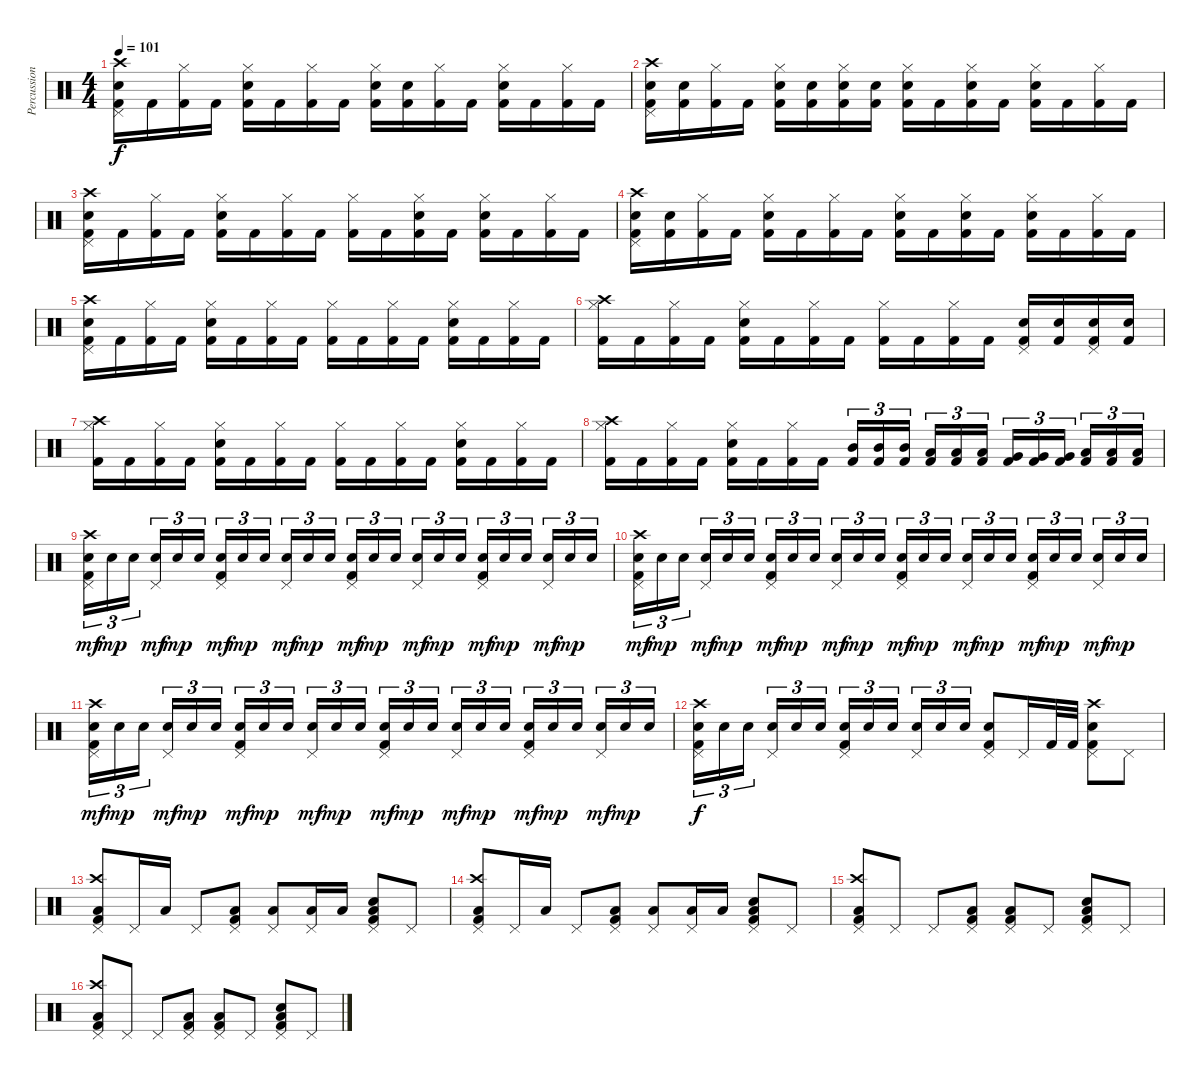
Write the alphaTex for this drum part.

\track ("Percussion" "Percussion") {instrument percussion}
\staff {score}
\articulation defaults
\ts (4 4)
\tempo 101
\clef neutral
\ks c
("Kick (hit) 2" "Snare (hit) 2" "Pedal Hi-Hat (hit)" "Crash high (hit)").16{dy f} "Kick (hit) 2".16 ("Kick (hit) 2" "Hi-Hat (closed)").16 "Kick (hit) 2".16 ("Kick (hit) 2" "Snare (hit) 2" "Hi-Hat (closed)").16 "Kick (hit) 2".16 ("Kick (hit) 2" "Hi-Hat (closed)").16 "Kick (hit) 2".16 ("Kick (hit) 2" "Snare (hit) 2" "Hi-Hat (closed)").16 ("Kick (hit) 2" "Snare (hit) 2").16 ("Kick (hit) 2" "Hi-Hat (closed)").16 "Kick (hit) 2".16 ("Kick (hit) 2" "Snare (hit) 2" "Hi-Hat (closed)").16 "Kick (hit) 2".16 ("Kick (hit) 2" "Hi-Hat (closed)").16 "Kick (hit) 2".16 |
("Kick (hit) 2" "Snare (hit) 2" "Pedal Hi-Hat (hit)" "Crash high (hit)").16 ("Kick (hit) 2" "Snare (hit) 2").16 ("Kick (hit) 2" "Hi-Hat (closed)").16 "Kick (hit) 2".16 ("Kick (hit) 2" "Snare (hit) 2" "Hi-Hat (closed)").16 ("Kick (hit) 2" "Snare (hit) 2").16 ("Kick (hit) 2" "Snare (hit) 2" "Hi-Hat (closed)").16 ("Kick (hit) 2" "Snare (hit) 2").16 ("Kick (hit) 2" "Snare (hit) 2" "Hi-Hat (closed)").16 "Kick (hit) 2".16 ("Kick (hit) 2" "Snare (hit) 2" "Hi-Hat (closed)").16 "Kick (hit) 2".16 ("Kick (hit) 2" "Snare (hit) 2" "Hi-Hat (closed)").16 "Kick (hit) 2".16 ("Kick (hit) 2" "Hi-Hat (closed)").16 "Kick (hit) 2".16 |
("Kick (hit) 2" "Snare (hit) 2" "Pedal Hi-Hat (hit)" "Crash high (hit)").16 "Kick (hit) 2".16 ("Kick (hit) 2" "Hi-Hat (closed)").16 "Kick (hit) 2".16 ("Kick (hit) 2" "Snare (hit) 2" "Hi-Hat (closed)").16 "Kick (hit) 2".16 ("Kick (hit) 2" "Hi-Hat (closed)").16 "Kick (hit) 2".16 ("Kick (hit) 2" "Hi-Hat (closed)").16 "Kick (hit) 2".16 ("Kick (hit) 2" "Snare (hit) 2" "Hi-Hat (closed)").16 "Kick (hit) 2".16 ("Kick (hit) 2" "Snare (hit) 2" "Hi-Hat (closed)").16 "Kick (hit) 2".16 ("Kick (hit) 2" "Hi-Hat (closed)").16 "Kick (hit) 2".16 |
("Kick (hit) 2" "Snare (hit) 2" "Pedal Hi-Hat (hit)" "Crash high (hit)").16 ("Kick (hit) 2" "Snare (hit) 2").16 ("Kick (hit) 2" "Hi-Hat (closed)").16 "Kick (hit) 2".16 ("Kick (hit) 2" "Snare (hit) 2" "Hi-Hat (closed)").16 "Kick (hit) 2".16 ("Kick (hit) 2" "Hi-Hat (closed)").16 "Kick (hit) 2".16 ("Kick (hit) 2" "Snare (hit) 2" "Hi-Hat (closed)").16 "Kick (hit) 2".16 ("Kick (hit) 2" "Snare (hit) 2" "Hi-Hat (closed)").16 "Kick (hit) 2".16 ("Kick (hit) 2" "Snare (hit) 2" "Hi-Hat (closed)").16 "Kick (hit) 2".16 ("Kick (hit) 2" "Hi-Hat (closed)").16 "Kick (hit) 2".16 |
("Kick (hit) 2" "Snare (hit) 2" "Pedal Hi-Hat (hit)" "Crash high (hit)").16 "Kick (hit) 2".16 ("Kick (hit) 2" "Hi-Hat (closed)").16 "Kick (hit) 2".16 ("Kick (hit) 2" "Snare (hit) 2" "Hi-Hat (closed)").16 "Kick (hit) 2".16 ("Kick (hit) 2" "Hi-Hat (closed)").16 "Kick (hit) 2".16 ("Kick (hit) 2" "Hi-Hat (closed)").16 "Kick (hit) 2".16 ("Kick (hit) 2" "Hi-Hat (closed)").16 "Kick (hit) 2".16 ("Kick (hit) 2" "Snare (hit) 2" "Hi-Hat (closed)").16 "Kick (hit) 2".16 ("Kick (hit) 2" "Hi-Hat (closed)").16 "Kick (hit) 2".16 |
("Kick (hit) 2" "Hi-Hat (closed)" "Crash high (hit)").16 "Kick (hit) 2".16 ("Kick (hit) 2" "Hi-Hat (closed)").16 "Kick (hit) 2".16 ("Kick (hit) 2" "Snare (hit) 2" "Hi-Hat (closed)").16 "Kick (hit) 2".16 ("Kick (hit) 2" "Hi-Hat (closed)").16 "Kick (hit) 2".16 ("Kick (hit) 2" "Hi-Hat (closed)").16 "Kick (hit) 2".16 ("Kick (hit) 2" "Hi-Hat (closed)").16 "Kick (hit) 2".16 ("Kick (hit) 2" "Snare (hit) 2" "Pedal Hi-Hat (hit)").16 ("Kick (hit) 2" "Snare (hit) 2").16 ("Kick (hit) 2" "Snare (hit) 2" "Pedal Hi-Hat (hit)").16 ("Kick (hit) 2" "Snare (hit) 2").16 |
("Kick (hit) 2" "Hi-Hat (closed)" "Crash high (hit)").16 "Kick (hit) 2".16 ("Kick (hit) 2" "Hi-Hat (closed)").16 "Kick (hit) 2".16 ("Kick (hit) 2" "Snare (hit) 2" "Hi-Hat (closed)").16 "Kick (hit) 2".16 ("Kick (hit) 2" "Hi-Hat (closed)").16 "Kick (hit) 2".16 ("Kick (hit) 2" "Hi-Hat (closed)").16 "Kick (hit) 2".16 ("Kick (hit) 2" "Hi-Hat (closed)").16 "Kick (hit) 2".16 ("Kick (hit) 2" "Snare (hit) 2" "Hi-Hat (closed)").16 "Kick (hit) 2".16 ("Kick (hit) 2" "Hi-Hat (closed)").16 "Kick (hit) 2".16 |
("Kick (hit) 2" "Hi-Hat (closed)" "Crash high (hit)").16 "Kick (hit) 2".16 ("Kick (hit) 2" "Hi-Hat (closed)").16 "Kick (hit) 2".16 ("Kick (hit) 2" "Snare (hit) 2" "Hi-Hat (closed)").16 "Kick (hit) 2".16 ("Kick (hit) 2" "Hi-Hat (closed)").16 "Kick (hit) 2".16 ("Kick (hit) 2" "Mid Tom (hit)").16{tu (3 2)} ("Kick (hit) 2" "Mid Tom (hit)").16{tu (3 2)} ("Kick (hit) 2" "Mid Tom (hit)").16{tu (3 2)} ("Kick (hit) 2" "Low Tom (hit)").16{tu (3 2)} ("Kick (hit) 2" "Low Tom (hit)").16{tu (3 2)} ("Kick (hit) 2" "Low Tom (hit)").16{tu (3 2)} ("Kick (hit) 2" "Very Low Tom (hit)").16{tu (3 2)} ("Kick (hit) 2" "Very Low Tom (hit)").16{tu (3 2)} ("Kick (hit) 2" "Very Low Tom (hit)").16{tu (3 2)} ("Kick (hit) 2" "Low Floor Tom (hit)").16{tu (3 2)} ("Kick (hit) 2" "Low Floor Tom (hit)").16{tu (3 2)} ("Kick (hit) 2" "Low Floor Tom (hit)").16{tu (3 2)} |
("Kick (hit) 2" "Snare (hit) 2" "Pedal Hi-Hat (hit)" "Crash high (hit)").16{tu (3 2) dy mf} "Snare (hit) 2".16{tu (3 2) dy mp} "Snare (hit) 2".16{tu (3 2)} ("Snare (hit) 2" "Pedal Hi-Hat (hit)").16{tu (3 2) dy mf} "Snare (hit) 2".16{tu (3 2) dy mp} "Snare (hit) 2".16{tu (3 2)} ("Kick (hit) 2" "Snare (hit) 2" "Pedal Hi-Hat (hit)").16{tu (3 2) dy mf} "Snare (hit) 2".16{tu (3 2) dy mp} "Snare (hit) 2".16{tu (3 2)} ("Snare (hit) 2" "Pedal Hi-Hat (hit)").16{tu (3 2) dy mf} "Snare (hit) 2".16{tu (3 2) dy mp} "Snare (hit) 2".16{tu (3 2)} ("Kick (hit) 2" "Snare (hit) 2" "Pedal Hi-Hat (hit)").16{tu (3 2) dy mf} "Snare (hit) 2".16{tu (3 2) dy mp} "Snare (hit) 2".16{tu (3 2)} ("Snare (hit) 2" "Pedal Hi-Hat (hit)").16{tu (3 2) dy mf} "Snare (hit) 2".16{tu (3 2) dy mp} "Snare (hit) 2".16{tu (3 2)} ("Kick (hit) 2" "Snare (hit) 2" "Pedal Hi-Hat (hit)").16{tu (3 2) dy mf} "Snare (hit) 2".16{tu (3 2) dy mp} "Snare (hit) 2".16{tu (3 2)} ("Snare (hit) 2" "Pedal Hi-Hat (hit)").16{tu (3 2) dy mf} "Snare (hit) 2".16{tu (3 2) dy mp} "Snare (hit) 2".16{tu (3 2)} |
("Kick (hit) 2" "Snare (hit) 2" "Pedal Hi-Hat (hit)" "Crash high (hit)").16{tu (3 2) dy mf} "Snare (hit) 2".16{tu (3 2) dy mp} "Snare (hit) 2".16{tu (3 2)} ("Snare (hit) 2" "Pedal Hi-Hat (hit)").16{tu (3 2) dy mf} "Snare (hit) 2".16{tu (3 2) dy mp} "Snare (hit) 2".16{tu (3 2)} ("Kick (hit) 2" "Snare (hit) 2" "Pedal Hi-Hat (hit)").16{tu (3 2) dy mf} "Snare (hit) 2".16{tu (3 2) dy mp} "Snare (hit) 2".16{tu (3 2)} ("Snare (hit) 2" "Pedal Hi-Hat (hit)").16{tu (3 2) dy mf} "Snare (hit) 2".16{tu (3 2) dy mp} "Snare (hit) 2".16{tu (3 2)} ("Kick (hit) 2" "Snare (hit) 2" "Pedal Hi-Hat (hit)").16{tu (3 2) dy mf} "Snare (hit) 2".16{tu (3 2) dy mp} "Snare (hit) 2".16{tu (3 2)} ("Snare (hit) 2" "Pedal Hi-Hat (hit)").16{tu (3 2) dy mf} "Snare (hit) 2".16{tu (3 2) dy mp} "Snare (hit) 2".16{tu (3 2)} ("Kick (hit) 2" "Snare (hit) 2" "Pedal Hi-Hat (hit)").16{tu (3 2) dy mf} "Snare (hit) 2".16{tu (3 2) dy mp} "Snare (hit) 2".16{tu (3 2)} ("Snare (hit) 2" "Pedal Hi-Hat (hit)").16{tu (3 2) dy mf} "Snare (hit) 2".16{tu (3 2) dy mp} "Snare (hit) 2".16{tu (3 2)} |
("Kick (hit) 2" "Snare (hit) 2" "Pedal Hi-Hat (hit)" "Crash high (hit)").16{tu (3 2) dy mf} "Snare (hit) 2".16{tu (3 2) dy mp} "Snare (hit) 2".16{tu (3 2)} ("Snare (hit) 2" "Pedal Hi-Hat (hit)").16{tu (3 2) dy mf} "Snare (hit) 2".16{tu (3 2) dy mp} "Snare (hit) 2".16{tu (3 2)} ("Kick (hit) 2" "Snare (hit) 2" "Pedal Hi-Hat (hit)").16{tu (3 2) dy mf} "Snare (hit) 2".16{tu (3 2) dy mp} "Snare (hit) 2".16{tu (3 2)} ("Snare (hit) 2" "Pedal Hi-Hat (hit)").16{tu (3 2) dy mf} "Snare (hit) 2".16{tu (3 2) dy mp} "Snare (hit) 2".16{tu (3 2)} ("Kick (hit) 2" "Snare (hit) 2" "Pedal Hi-Hat (hit)").16{tu (3 2) dy mf} "Snare (hit) 2".16{tu (3 2) dy mp} "Snare (hit) 2".16{tu (3 2)} ("Snare (hit) 2" "Pedal Hi-Hat (hit)").16{tu (3 2) dy mf} "Snare (hit) 2".16{tu (3 2) dy mp} "Snare (hit) 2".16{tu (3 2)} ("Kick (hit) 2" "Snare (hit) 2" "Pedal Hi-Hat (hit)").16{tu (3 2) dy mf} "Snare (hit) 2".16{tu (3 2) dy mp} "Snare (hit) 2".16{tu (3 2)} ("Snare (hit) 2" "Pedal Hi-Hat (hit)").16{tu (3 2) dy mf} "Snare (hit) 2".16{tu (3 2) dy mp} "Snare (hit) 2".16{tu (3 2)} |
("Kick (hit) 2" "Snare (hit) 2" "Pedal Hi-Hat (hit)" "Crash high (hit)").16{tu (3 2) dy f} "Snare (hit) 2".16{tu (3 2)} "Snare (hit) 2".16{tu (3 2)} ("Snare (hit) 2" "Pedal Hi-Hat (hit)").16{tu (3 2)} "Snare (hit) 2".16{tu (3 2)} "Snare (hit) 2".16{tu (3 2)} ("Kick (hit) 2" "Snare (hit) 2" "Pedal Hi-Hat (hit)").16{tu (3 2)} "Snare (hit) 2".16{tu (3 2)} "Snare (hit) 2".16{tu (3 2)} ("Snare (hit) 2" "Pedal Hi-Hat (hit)").16{tu (3 2)} "Snare (hit) 2".16{tu (3 2)} "Snare (hit) 2".16{tu (3 2)} ("Kick (hit) 2" "Snare (hit) 2" "Pedal Hi-Hat (hit)").8 "Pedal Hi-Hat (hit)".16 "Kick (hit) 2".32 "Kick (hit) 2".32 ("Kick (hit) 2" "Snare (hit) 2" "Pedal Hi-Hat (hit)" "Crash high (hit)").8 "Pedal Hi-Hat (hit)".8 |
("Kick (hit) 2" "Low Floor Tom (hit)" "Pedal Hi-Hat (hit)" "Crash high (hit)").8 "Pedal Hi-Hat (hit)".16 "Low Floor Tom (hit)".16 "Pedal Hi-Hat (hit)".8 ("Kick (hit) 2" "Low Floor Tom (hit)" "Pedal Hi-Hat (hit)").8 ("Low Floor Tom (hit)" "Pedal Hi-Hat (hit)").8 ("Low Floor Tom (hit)" "Pedal Hi-Hat (hit)").16 "Low Floor Tom (hit)".16 ("Kick (hit) 2" "Snare (hit) 2" "Low Floor Tom (hit)" "Pedal Hi-Hat (hit)").8 "Pedal Hi-Hat (hit)".8 |
("Kick (hit) 2" "Low Floor Tom (hit)" "Pedal Hi-Hat (hit)" "Crash high (hit)").8 "Pedal Hi-Hat (hit)".16 "Low Floor Tom (hit)".16 "Pedal Hi-Hat (hit)".8 ("Kick (hit) 2" "Low Floor Tom (hit)" "Pedal Hi-Hat (hit)").8 ("Low Floor Tom (hit)" "Pedal Hi-Hat (hit)").8 ("Low Floor Tom (hit)" "Pedal Hi-Hat (hit)").16 "Low Floor Tom (hit)".16 ("Kick (hit) 2" "Snare (hit) 2" "Low Floor Tom (hit)" "Pedal Hi-Hat (hit)").8 "Pedal Hi-Hat (hit)".8 |
("Kick (hit) 2" "Low Floor Tom (hit)" "Pedal Hi-Hat (hit)" "Crash high (hit)").8 "Pedal Hi-Hat (hit)".8 "Pedal Hi-Hat (hit)".8 ("Kick (hit) 2" "Low Floor Tom (hit)" "Pedal Hi-Hat (hit)").8 ("Kick (hit) 2" "Low Floor Tom (hit)" "Pedal Hi-Hat (hit)").8 "Pedal Hi-Hat (hit)".8 ("Kick (hit) 2" "Snare (hit) 2" "Low Floor Tom (hit)" "Pedal Hi-Hat (hit)").8 "Pedal Hi-Hat (hit)".8 |
("Kick (hit) 2" "Low Floor Tom (hit)" "Pedal Hi-Hat (hit)" "Crash high (hit)").8 "Pedal Hi-Hat (hit)".8 "Pedal Hi-Hat (hit)".8 ("Kick (hit) 2" "Low Floor Tom (hit)" "Pedal Hi-Hat (hit)").8 ("Kick (hit) 2" "Low Floor Tom (hit)" "Pedal Hi-Hat (hit)").8 "Pedal Hi-Hat (hit)".8 ("Kick (hit) 2" "Snare (hit) 2" "Low Floor Tom (hit)" "Pedal Hi-Hat (hit)").8 "Pedal Hi-Hat (hit)".8
